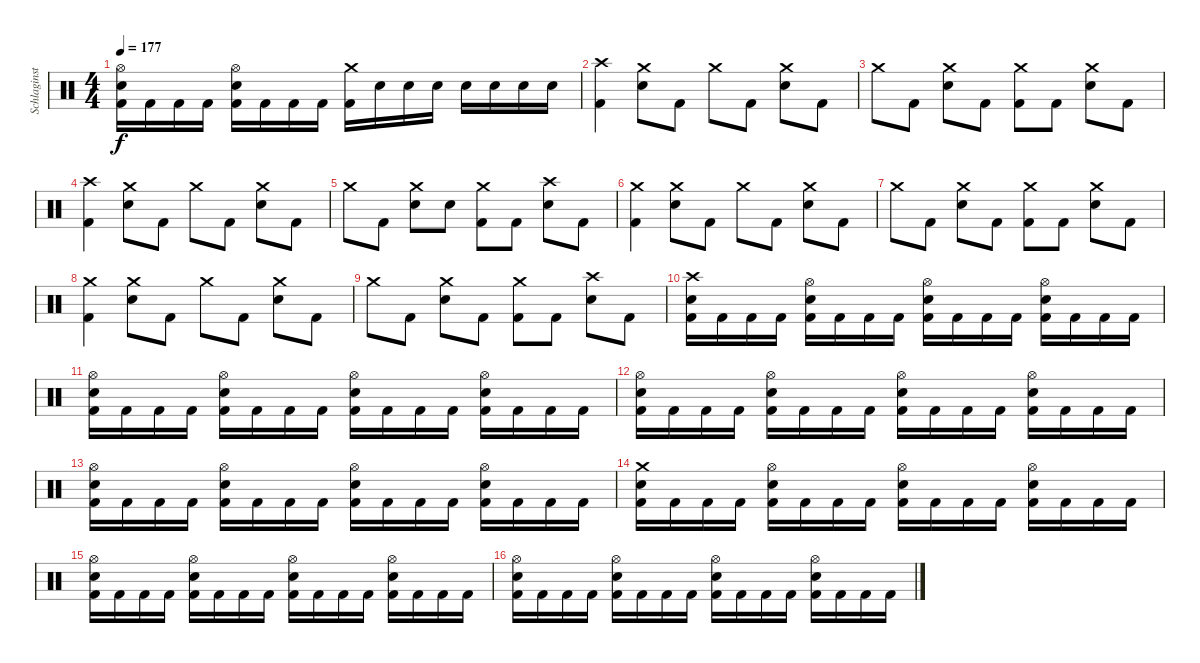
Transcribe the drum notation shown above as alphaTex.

\track ("Schlaginstrumente - Auswahl" "Schlaginst") {instrument percussion}
\staff {score}
\articulation defaults
\ts (4 4)
\tempo 177
\clef neutral
\ks c
("Hi-Hat (open)" "Snare (hit) 2" "Kick (hit) 2").16{dy f} "Kick (hit) 2".16 "Kick (hit) 2".16 "Kick (hit) 2".16 ("Hi-Hat (open)" "Snare (hit) 2" "Kick (hit) 2").16 "Kick (hit) 2".16 "Kick (hit) 2".16 "Kick (hit) 2".16 ("Crash medium (hit)" "Kick (hit) 2").16 "Snare (hit) 2".16 "Snare (hit) 2".16 "Snare (hit) 2".16 "Snare (hit) 2".16 "Snare (hit) 2".16 "Snare (hit) 2".16 "Snare (hit) 2".16 |
("Crash high (hit)" "Kick (hit) 2").4 ("Crash medium (hit)" "Snare (hit) 2").8 "Kick (hit) 2".8 "Crash medium (hit)".8 "Kick (hit) 2".8 ("Crash medium (hit)" "Snare (hit) 2").8 "Kick (hit) 2".8 |
"Crash medium (hit)".8 "Kick (hit) 2".8 ("Crash medium (hit)" "Snare (hit) 2").8 "Kick (hit) 2".8 ("Kick (hit) 2" "Crash medium (hit)").8 "Kick (hit) 2".8 ("Crash medium (hit)" "Snare (hit) 2").8 "Kick (hit) 2".8 |
("Crash high (hit)" "Kick (hit) 2").4 ("Crash medium (hit)" "Snare (hit) 2").8 "Kick (hit) 2".8 "Crash medium (hit)".8 "Kick (hit) 2".8 ("Crash medium (hit)" "Snare (hit) 2").8 "Kick (hit) 2".8 |
"Crash medium (hit)".8 "Kick (hit) 2".8 ("Crash medium (hit)" "Snare (hit) 2").8 "Snare (hit) 2".8 ("Kick (hit) 2" "Crash medium (hit)").8 "Kick (hit) 2".8 ("Crash high (hit)" "Snare (hit) 2").8 "Kick (hit) 2".8 |
("Crash medium (hit)" "Kick (hit) 2").4 ("Crash medium (hit)" "Snare (hit) 2").8 "Kick (hit) 2".8 "Crash medium (hit)".8 "Kick (hit) 2".8 ("Crash medium (hit)" "Snare (hit) 2").8 "Kick (hit) 2".8 |
"Crash medium (hit)".8 "Kick (hit) 2".8 ("Crash medium (hit)" "Snare (hit) 2").8 "Kick (hit) 2".8 ("Kick (hit) 2" "Crash medium (hit)").8 "Kick (hit) 2".8 ("Crash medium (hit)" "Snare (hit) 2").8 "Kick (hit) 2".8 |
("Crash medium (hit)" "Kick (hit) 2").4 ("Crash medium (hit)" "Snare (hit) 2").8 "Kick (hit) 2".8 "Crash medium (hit)".8 "Kick (hit) 2".8 ("Crash medium (hit)" "Snare (hit) 2").8 "Kick (hit) 2".8 |
"Crash medium (hit)".8 "Kick (hit) 2".8 ("Crash medium (hit)" "Snare (hit) 2").8 "Kick (hit) 2".8 ("Kick (hit) 2" "Crash medium (hit)").8 "Kick (hit) 2".8 ("Crash high (hit)" "Snare (hit) 2").8 "Kick (hit) 2".8 |
("Snare (hit) 2" "Crash high (hit)" "Kick (hit) 2").16 "Kick (hit) 2".16 "Kick (hit) 2".16 "Kick (hit) 2".16 ("Hi-Hat (open)" "Snare (hit) 2" "Kick (hit) 2").16 "Kick (hit) 2".16 "Kick (hit) 2".16 "Kick (hit) 2".16 ("Hi-Hat (open)" "Snare (hit) 2" "Kick (hit) 2").16 "Kick (hit) 2".16 "Kick (hit) 2".16 "Kick (hit) 2".16 ("Hi-Hat (open)" "Snare (hit) 2" "Kick (hit) 2").16 "Kick (hit) 2".16 "Kick (hit) 2".16 "Kick (hit) 2".16 |
("Hi-Hat (open)" "Snare (hit) 2" "Kick (hit) 2").16 "Kick (hit) 2".16 "Kick (hit) 2".16 "Kick (hit) 2".16 ("Hi-Hat (open)" "Snare (hit) 2" "Kick (hit) 2").16 "Kick (hit) 2".16 "Kick (hit) 2".16 "Kick (hit) 2".16 ("Hi-Hat (open)" "Snare (hit) 2" "Kick (hit) 2").16 "Kick (hit) 2".16 "Kick (hit) 2".16 "Kick (hit) 2".16 ("Hi-Hat (open)" "Snare (hit) 2" "Kick (hit) 2").16 "Kick (hit) 2".16 "Kick (hit) 2".16 "Kick (hit) 2".16 |
("Snare (hit) 2" "Hi-Hat (open)" "Kick (hit) 2").16 "Kick (hit) 2".16 "Kick (hit) 2".16 "Kick (hit) 2".16 ("Hi-Hat (open)" "Snare (hit) 2" "Kick (hit) 2").16 "Kick (hit) 2".16 "Kick (hit) 2".16 "Kick (hit) 2".16 ("Hi-Hat (open)" "Snare (hit) 2" "Kick (hit) 2").16 "Kick (hit) 2".16 "Kick (hit) 2".16 "Kick (hit) 2".16 ("Hi-Hat (open)" "Snare (hit) 2" "Kick (hit) 2").16 "Kick (hit) 2".16 "Kick (hit) 2".16 "Kick (hit) 2".16 |
("Hi-Hat (open)" "Snare (hit) 2" "Kick (hit) 2").16 "Kick (hit) 2".16 "Kick (hit) 2".16 "Kick (hit) 2".16 ("Hi-Hat (open)" "Snare (hit) 2" "Kick (hit) 2").16 "Kick (hit) 2".16 "Kick (hit) 2".16 "Kick (hit) 2".16 ("Hi-Hat (open)" "Snare (hit) 2" "Kick (hit) 2").16 "Kick (hit) 2".16 "Kick (hit) 2".16 "Kick (hit) 2".16 ("Hi-Hat (open)" "Snare (hit) 2" "Kick (hit) 2").16 "Kick (hit) 2".16 "Kick (hit) 2".16 "Kick (hit) 2".16 |
("Snare (hit) 2" "Crash medium (hit)" "Kick (hit) 2").16 "Kick (hit) 2".16 "Kick (hit) 2".16 "Kick (hit) 2".16 ("Hi-Hat (open)" "Snare (hit) 2" "Kick (hit) 2").16 "Kick (hit) 2".16 "Kick (hit) 2".16 "Kick (hit) 2".16 ("Hi-Hat (open)" "Snare (hit) 2" "Kick (hit) 2").16 "Kick (hit) 2".16 "Kick (hit) 2".16 "Kick (hit) 2".16 ("Hi-Hat (open)" "Snare (hit) 2" "Kick (hit) 2").16 "Kick (hit) 2".16 "Kick (hit) 2".16 "Kick (hit) 2".16 |
("Hi-Hat (open)" "Snare (hit) 2" "Kick (hit) 2").16 "Kick (hit) 2".16 "Kick (hit) 2".16 "Kick (hit) 2".16 ("Hi-Hat (open)" "Snare (hit) 2" "Kick (hit) 2").16 "Kick (hit) 2".16 "Kick (hit) 2".16 "Kick (hit) 2".16 ("Hi-Hat (open)" "Snare (hit) 2" "Kick (hit) 2").16 "Kick (hit) 2".16 "Kick (hit) 2".16 "Kick (hit) 2".16 ("Hi-Hat (open)" "Snare (hit) 2" "Kick (hit) 2").16 "Kick (hit) 2".16 "Kick (hit) 2".16 "Kick (hit) 2".16 |
("Snare (hit) 2" "Hi-Hat (open)" "Kick (hit) 2").16 "Kick (hit) 2".16 "Kick (hit) 2".16 "Kick (hit) 2".16 ("Hi-Hat (open)" "Snare (hit) 2" "Kick (hit) 2").16 "Kick (hit) 2".16 "Kick (hit) 2".16 "Kick (hit) 2".16 ("Hi-Hat (open)" "Snare (hit) 2" "Kick (hit) 2").16 "Kick (hit) 2".16 "Kick (hit) 2".16 "Kick (hit) 2".16 ("Hi-Hat (open)" "Snare (hit) 2" "Kick (hit) 2").16 "Kick (hit) 2".16 "Kick (hit) 2".16 "Kick (hit) 2".16
